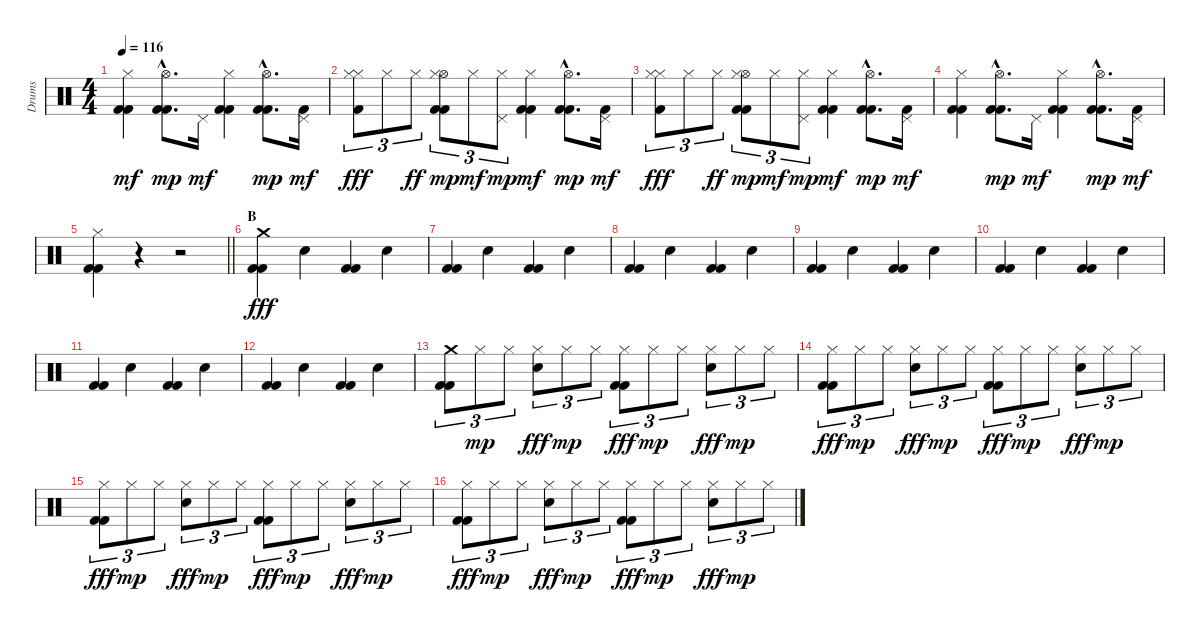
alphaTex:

\track ("Drums" "Drums") {instrument percussion}
\staff {score}
\articulation defaults
\ts (4 4)
\tempo 116
\clef neutral
\ks aminor
("Hi-Hat (closed)" "Kick (hit) 2" "Kick (hit) 2").4{dy mf} ("Hi-Hat (open)"{hac} "Kick (hit) 2"{hac} "Kick (hit) 2"{hac}).8{d dy mp} "Pedal Hi-Hat (hit)".16{dy mf} ("Hi-Hat (closed)" "Kick (hit) 2" "Kick (hit) 2").4 ("Hi-Hat (open)"{hac} "Kick (hit) 2"{hac} "Kick (hit) 2"{hac}).8{d dy mp} ("Pedal Hi-Hat (hit)" "Kick (hit) 2").16{dy mf} |
("Hi-Hat (closed)" "Hi-Hat (closed)" "Kick (hit) 2").8{tu (3 2) dy fff} "Hi-Hat (closed)".8{tu (3 2)} "Hi-Hat (closed)".8{tu (3 2) dy ff} ("Hi-Hat (open)" "Hi-Hat (closed)" "Kick (hit) 2" "Kick (hit) 2").8{tu (3 2) dy mp} "Hi-Hat (closed)".8{tu (3 2) dy mf} ("Pedal Hi-Hat (hit)" "Hi-Hat (closed)").8{tu (3 2) dy mp} ("Hi-Hat (closed)" "Kick (hit) 2" "Kick (hit) 2").4{dy mf} ("Hi-Hat (open)"{hac} "Kick (hit) 2"{hac} "Kick (hit) 2"{hac}).8{d dy mp} ("Pedal Hi-Hat (hit)" "Kick (hit) 2").16{dy mf} |
("Hi-Hat (closed)" "Hi-Hat (closed)" "Kick (hit) 2").8{tu (3 2) dy fff} "Hi-Hat (closed)".8{tu (3 2)} "Hi-Hat (closed)".8{tu (3 2) dy ff} ("Hi-Hat (open)" "Hi-Hat (closed)" "Kick (hit) 2" "Kick (hit) 2").8{tu (3 2) dy mp} "Hi-Hat (closed)".8{tu (3 2) dy mf} ("Pedal Hi-Hat (hit)" "Hi-Hat (closed)").8{tu (3 2) dy mp} ("Hi-Hat (closed)" "Kick (hit) 2" "Kick (hit) 2").4{dy mf} ("Hi-Hat (open)"{hac} "Kick (hit) 2"{hac} "Kick (hit) 2"{hac}).8{d dy mp} ("Pedal Hi-Hat (hit)" "Kick (hit) 2").16{dy mf} |
("Hi-Hat (closed)" "Kick (hit) 2" "Kick (hit) 2").4 ("Hi-Hat (open)"{hac} "Kick (hit) 2"{hac} "Kick (hit) 2"{hac}).8{d dy mp} "Pedal Hi-Hat (hit)".16{dy mf} ("Hi-Hat (closed)" "Kick (hit) 2" "Kick (hit) 2").4 ("Hi-Hat (open)"{hac} "Kick (hit) 2"{hac} "Kick (hit) 2"{hac}).8{d dy mp} ("Pedal Hi-Hat (hit)" "Kick (hit) 2").16{dy mf} |
\barLineRight lightlight
("Hi-Hat (closed)" "Kick (hit) 2" "Kick (hit) 2").4 r.4 r.2 |
\section ("" "B")
("Crash medium (hit)" "Kick (hit) 2" "Kick (hit) 2").4{dy fff} "Snare (hit) 2".4 ("Kick (hit) 2" "Kick (hit) 2").4 "Snare (hit) 2".4 |
("Kick (hit) 2" "Kick (hit) 2").4 "Snare (hit) 2".4 ("Kick (hit) 2" "Kick (hit) 2").4 "Snare (hit) 2".4 |
("Kick (hit) 2" "Kick (hit) 2").4 "Snare (hit) 2".4 ("Kick (hit) 2" "Kick (hit) 2").4 "Snare (hit) 2".4 |
("Kick (hit) 2" "Kick (hit) 2").4 "Snare (hit) 2".4 ("Kick (hit) 2" "Kick (hit) 2").4 "Snare (hit) 2".4 |
("Kick (hit) 2" "Kick (hit) 2").4 "Snare (hit) 2".4 ("Kick (hit) 2" "Kick (hit) 2").4 "Snare (hit) 2".4 |
("Kick (hit) 2" "Kick (hit) 2").4 "Snare (hit) 2".4 ("Kick (hit) 2" "Kick (hit) 2").4 "Snare (hit) 2".4 |
("Kick (hit) 2" "Kick (hit) 2").4 "Snare (hit) 2".4 ("Kick (hit) 2" "Kick (hit) 2").4 "Snare (hit) 2".4 |
("Crash medium (hit)" "Kick (hit) 2" "Kick (hit) 2").8{tu (3 2)} "Hi-Hat (closed)".8{tu (3 2) dy mp} "Hi-Hat (closed)".8{tu (3 2)} ("Hi-Hat (closed)" "Snare (hit) 2").8{tu (3 2) dy fff} "Hi-Hat (closed)".8{tu (3 2) dy mp} "Hi-Hat (closed)".8{tu (3 2)} ("Hi-Hat (closed)" "Kick (hit) 2" "Kick (hit) 2").8{tu (3 2) dy fff} "Hi-Hat (closed)".8{tu (3 2) dy mp} "Hi-Hat (closed)".8{tu (3 2)} ("Hi-Hat (closed)" "Snare (hit) 2").8{tu (3 2) dy fff} "Hi-Hat (closed)".8{tu (3 2) dy mp} "Hi-Hat (closed)".8{tu (3 2)} |
("Hi-Hat (closed)" "Kick (hit) 2" "Kick (hit) 2").8{tu (3 2) dy fff} "Hi-Hat (closed)".8{tu (3 2) dy mp} "Hi-Hat (closed)".8{tu (3 2)} ("Hi-Hat (closed)" "Snare (hit) 2").8{tu (3 2) dy fff} "Hi-Hat (closed)".8{tu (3 2) dy mp} "Hi-Hat (closed)".8{tu (3 2)} ("Hi-Hat (closed)" "Kick (hit) 2" "Kick (hit) 2").8{tu (3 2) dy fff} "Hi-Hat (closed)".8{tu (3 2) dy mp} "Hi-Hat (closed)".8{tu (3 2)} ("Hi-Hat (closed)" "Snare (hit) 2").8{tu (3 2) dy fff} "Hi-Hat (closed)".8{tu (3 2) dy mp} "Hi-Hat (closed)".8{tu (3 2)} |
("Hi-Hat (closed)" "Kick (hit) 2" "Kick (hit) 2").8{tu (3 2) dy fff} "Hi-Hat (closed)".8{tu (3 2) dy mp} "Hi-Hat (closed)".8{tu (3 2)} ("Hi-Hat (closed)" "Snare (hit) 2").8{tu (3 2) dy fff} "Hi-Hat (closed)".8{tu (3 2) dy mp} "Hi-Hat (closed)".8{tu (3 2)} ("Hi-Hat (closed)" "Kick (hit) 2" "Kick (hit) 2").8{tu (3 2) dy fff} "Hi-Hat (closed)".8{tu (3 2) dy mp} "Hi-Hat (closed)".8{tu (3 2)} ("Hi-Hat (closed)" "Snare (hit) 2").8{tu (3 2) dy fff} "Hi-Hat (closed)".8{tu (3 2) dy mp} "Hi-Hat (closed)".8{tu (3 2)} |
("Hi-Hat (closed)" "Kick (hit) 2" "Kick (hit) 2").8{tu (3 2) dy fff} "Hi-Hat (closed)".8{tu (3 2) dy mp} "Hi-Hat (closed)".8{tu (3 2)} ("Hi-Hat (closed)" "Snare (hit) 2").8{tu (3 2) dy fff} "Hi-Hat (closed)".8{tu (3 2) dy mp} "Hi-Hat (closed)".8{tu (3 2)} ("Hi-Hat (closed)" "Kick (hit) 2" "Kick (hit) 2").8{tu (3 2) dy fff} "Hi-Hat (closed)".8{tu (3 2) dy mp} "Hi-Hat (closed)".8{tu (3 2)} ("Hi-Hat (closed)" "Snare (hit) 2").8{tu (3 2) dy fff} "Hi-Hat (closed)".8{tu (3 2) dy mp} "Hi-Hat (closed)".8{tu (3 2)}
